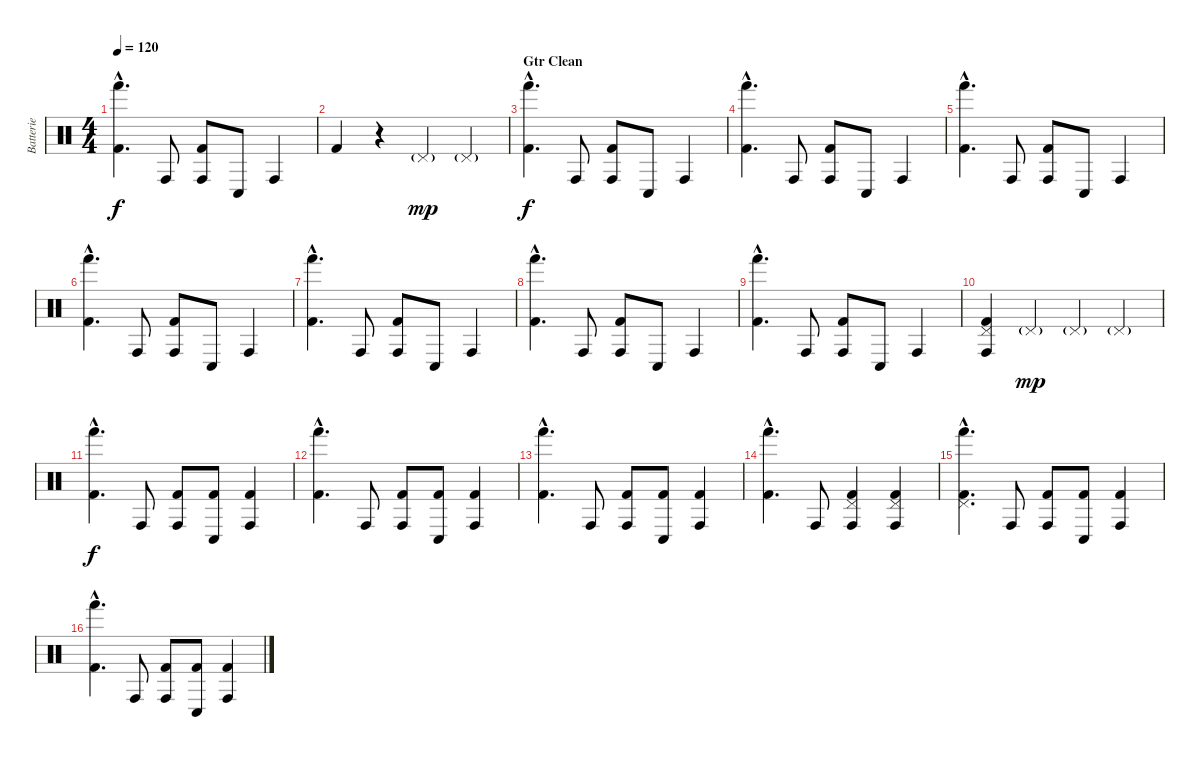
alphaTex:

\track ("Batterie" "Batterie") {instrument percussion}
\staff {score}
\articulation defaults
\ts (4 4)
\tempo 120
\clef neutral
\ks c
("Hand (hit)"{hac} "Kick (hit) 2"{hac}).4{d dy f} "Conga high (hit)".8 ("Conga high (hit)" "Kick (hit) 2").8 "Conga low (hit)".8 "Conga high (hit)".4 |
"Kick (hit) 2".4 r.4 "Pedal Hi-Hat (hit)"{g}.4{dy mp} "Pedal Hi-Hat (hit)"{g}.4 |
\section ("" "Gtr Clean")
("Hand (hit)"{hac} "Kick (hit) 2"{hac}).4{d dy f} "Conga high (hit)".8 ("Conga high (hit)" "Kick (hit) 2").8 "Conga low (hit)".8 "Conga high (hit)".4 |
("Hand (hit)"{hac} "Kick (hit) 2"{hac}).4{d} "Conga high (hit)".8 ("Conga high (hit)" "Kick (hit) 2").8 "Conga low (hit)".8 "Conga high (hit)".4 |
("Hand (hit)"{hac} "Kick (hit) 2"{hac}).4{d} "Conga high (hit)".8 ("Conga high (hit)" "Kick (hit) 2").8 "Conga low (hit)".8 "Conga high (hit)".4 |
("Hand (hit)"{hac} "Kick (hit) 2"{hac}).4{d} "Conga high (hit)".8 ("Conga high (hit)" "Kick (hit) 2").8 "Conga low (hit)".8 "Conga high (hit)".4 |
("Hand (hit)"{hac} "Kick (hit) 2"{hac}).4{d} "Conga high (hit)".8 ("Conga high (hit)" "Kick (hit) 2").8 "Conga low (hit)".8 "Conga high (hit)".4 |
("Hand (hit)"{hac} "Kick (hit) 2"{hac}).4{d} "Conga high (hit)".8 ("Conga high (hit)" "Kick (hit) 2").8 "Conga low (hit)".8 "Conga high (hit)".4 |
("Hand (hit)"{hac} "Kick (hit) 2"{hac}).4{d} "Conga high (hit)".8 ("Conga high (hit)" "Kick (hit) 2").8 "Conga low (hit)".8 "Conga high (hit)".4 |
("Pedal Hi-Hat (hit)" "Conga high (hit)" "Kick (hit) 2").4 "Pedal Hi-Hat (hit)"{g}.4{dy mp} "Pedal Hi-Hat (hit)"{g}.4 "Pedal Hi-Hat (hit)"{g}.4 |
("Hand (hit)"{hac} "Kick (hit) 2"{hac}).4{d dy f} "Conga high (hit)".8 ("Conga high (hit)" "Kick (hit) 2").8 ("Conga low (hit)" "Kick (hit) 2").8 ("Conga high (hit)" "Kick (hit) 2").4 |
("Hand (hit)"{hac} "Kick (hit) 2"{hac}).4{d} "Conga high (hit)".8 ("Conga high (hit)" "Kick (hit) 2").8 ("Conga low (hit)" "Kick (hit) 2").8 ("Conga high (hit)" "Kick (hit) 2").4 |
("Hand (hit)"{hac} "Kick (hit) 2"{hac}).4{d} "Conga high (hit)".8 ("Conga high (hit)" "Kick (hit) 2").8 ("Conga low (hit)" "Kick (hit) 2").8 ("Conga high (hit)" "Kick (hit) 2").4 |
("Hand (hit)"{hac} "Kick (hit) 2"{hac}).4{d} "Conga high (hit)".8 ("Pedal Hi-Hat (hit)" "Conga high (hit)" "Kick (hit) 2").4 ("Pedal Hi-Hat (hit)" "Conga high (hit)" "Kick (hit) 2").4 |
("Pedal Hi-Hat (hit)"{hac} "Hand (hit)"{hac} "Kick (hit) 2"{hac}).4{d} "Conga high (hit)".8 ("Conga high (hit)" "Kick (hit) 2").8 ("Conga low (hit)" "Kick (hit) 2").8 ("Conga high (hit)" "Kick (hit) 2").4 |
("Hand (hit)"{hac} "Kick (hit) 2"{hac}).4{d} "Conga high (hit)".8 ("Conga high (hit)" "Kick (hit) 2").8 ("Conga low (hit)" "Kick (hit) 2").8 ("Conga high (hit)" "Kick (hit) 2").4
